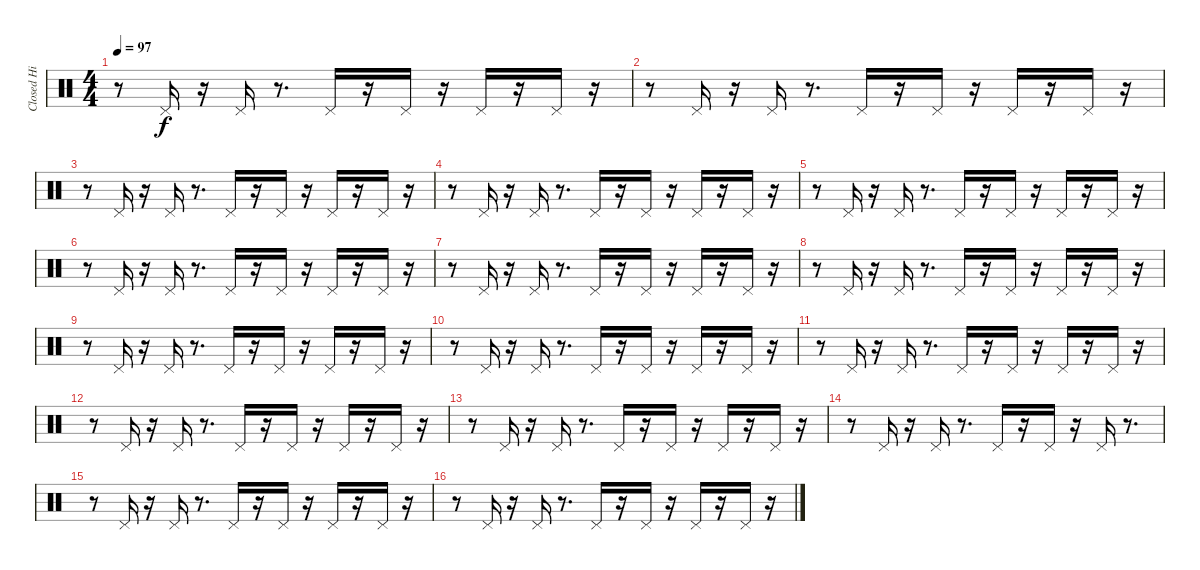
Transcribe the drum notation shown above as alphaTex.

\track ("Closed Hi Hat" "Closed Hi ") {instrument percussion}
\staff {score}
\articulation defaults
\ts (4 4)
\tempo 97
\clef neutral
\ks c
r.8{dy f} "Pedal Hi-Hat (hit)".16 r.16 "Pedal Hi-Hat (hit)".16 r.8{d} "Pedal Hi-Hat (hit)".16 r.16 "Pedal Hi-Hat (hit)".16 r.16 "Pedal Hi-Hat (hit)".16 r.16 "Pedal Hi-Hat (hit)".16 r.16 |
r.8 "Pedal Hi-Hat (hit)".16 r.16 "Pedal Hi-Hat (hit)".16 r.8{d} "Pedal Hi-Hat (hit)".16 r.16 "Pedal Hi-Hat (hit)".16 r.16 "Pedal Hi-Hat (hit)".16 r.16 "Pedal Hi-Hat (hit)".16 r.16 |
r.8 "Pedal Hi-Hat (hit)".16 r.16 "Pedal Hi-Hat (hit)".16 r.8{d} "Pedal Hi-Hat (hit)".16 r.16 "Pedal Hi-Hat (hit)".16 r.16 "Pedal Hi-Hat (hit)".16 r.16 "Pedal Hi-Hat (hit)".16 r.16 |
r.8 "Pedal Hi-Hat (hit)".16 r.16 "Pedal Hi-Hat (hit)".16 r.8{d} "Pedal Hi-Hat (hit)".16 r.16 "Pedal Hi-Hat (hit)".16 r.16 "Pedal Hi-Hat (hit)".16 r.16 "Pedal Hi-Hat (hit)".16 r.16 |
r.8 "Pedal Hi-Hat (hit)".16 r.16 "Pedal Hi-Hat (hit)".16 r.8{d} "Pedal Hi-Hat (hit)".16 r.16 "Pedal Hi-Hat (hit)".16 r.16 "Pedal Hi-Hat (hit)".16 r.16 "Pedal Hi-Hat (hit)".16 r.16 |
r.8 "Pedal Hi-Hat (hit)".16 r.16 "Pedal Hi-Hat (hit)".16 r.8{d} "Pedal Hi-Hat (hit)".16 r.16 "Pedal Hi-Hat (hit)".16 r.16 "Pedal Hi-Hat (hit)".16 r.16 "Pedal Hi-Hat (hit)".16 r.16 |
r.8 "Pedal Hi-Hat (hit)".16 r.16 "Pedal Hi-Hat (hit)".16 r.8{d} "Pedal Hi-Hat (hit)".16 r.16 "Pedal Hi-Hat (hit)".16 r.16 "Pedal Hi-Hat (hit)".16 r.16 "Pedal Hi-Hat (hit)".16 r.16 |
r.8 "Pedal Hi-Hat (hit)".16 r.16 "Pedal Hi-Hat (hit)".16 r.8{d} "Pedal Hi-Hat (hit)".16 r.16 "Pedal Hi-Hat (hit)".16 r.16 "Pedal Hi-Hat (hit)".16 r.16 "Pedal Hi-Hat (hit)".16 r.16 |
r.8 "Pedal Hi-Hat (hit)".16 r.16 "Pedal Hi-Hat (hit)".16 r.8{d} "Pedal Hi-Hat (hit)".16 r.16 "Pedal Hi-Hat (hit)".16 r.16 "Pedal Hi-Hat (hit)".16 r.16 "Pedal Hi-Hat (hit)".16 r.16 |
r.8 "Pedal Hi-Hat (hit)".16 r.16 "Pedal Hi-Hat (hit)".16 r.8{d} "Pedal Hi-Hat (hit)".16 r.16 "Pedal Hi-Hat (hit)".16 r.16 "Pedal Hi-Hat (hit)".16 r.16 "Pedal Hi-Hat (hit)".16 r.16 |
r.8 "Pedal Hi-Hat (hit)".16 r.16 "Pedal Hi-Hat (hit)".16 r.8{d} "Pedal Hi-Hat (hit)".16 r.16 "Pedal Hi-Hat (hit)".16 r.16 "Pedal Hi-Hat (hit)".16 r.16 "Pedal Hi-Hat (hit)".16 r.16 |
r.8 "Pedal Hi-Hat (hit)".16 r.16 "Pedal Hi-Hat (hit)".16 r.8{d} "Pedal Hi-Hat (hit)".16 r.16 "Pedal Hi-Hat (hit)".16 r.16 "Pedal Hi-Hat (hit)".16 r.16 "Pedal Hi-Hat (hit)".16 r.16 |
r.8 "Pedal Hi-Hat (hit)".16 r.16 "Pedal Hi-Hat (hit)".16 r.8{d} "Pedal Hi-Hat (hit)".16 r.16 "Pedal Hi-Hat (hit)".16 r.16 "Pedal Hi-Hat (hit)".16 r.16 "Pedal Hi-Hat (hit)".16 r.16 |
r.8 "Pedal Hi-Hat (hit)".16 r.16 "Pedal Hi-Hat (hit)".16 r.8{d} "Pedal Hi-Hat (hit)".16 r.16 "Pedal Hi-Hat (hit)".16 r.16 "Pedal Hi-Hat (hit)".16 r.8{d} |
r.8 "Pedal Hi-Hat (hit)".16 r.16 "Pedal Hi-Hat (hit)".16 r.8{d} "Pedal Hi-Hat (hit)".16 r.16 "Pedal Hi-Hat (hit)".16 r.16 "Pedal Hi-Hat (hit)".16 r.16 "Pedal Hi-Hat (hit)".16 r.16 |
r.8 "Pedal Hi-Hat (hit)".16 r.16 "Pedal Hi-Hat (hit)".16 r.8{d} "Pedal Hi-Hat (hit)".16 r.16 "Pedal Hi-Hat (hit)".16 r.16 "Pedal Hi-Hat (hit)".16 r.16 "Pedal Hi-Hat (hit)".16 r.16
